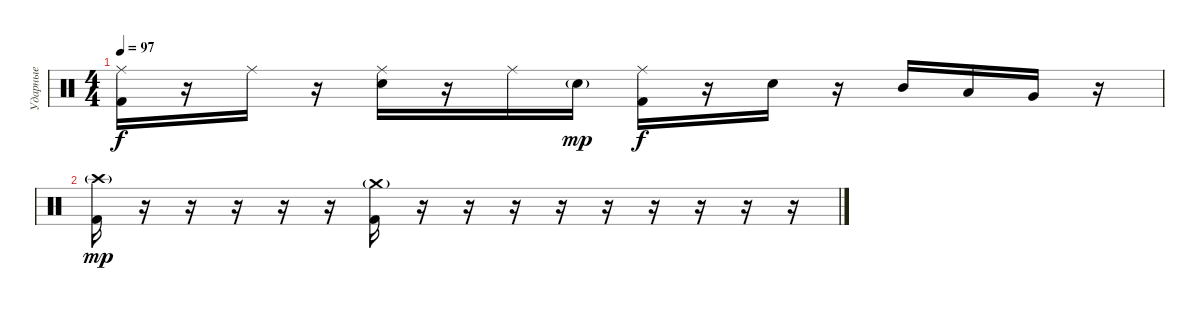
\track ("Ударные" "Ударные") {instrument percussion}
\staff {score}
\articulation defaults
\ts (4 4)
\tempo 97
\clef neutral
\ks c
("Ride (middle)" "Kick (hit) 2").16{dy f} r.16 "Ride (middle)".16 r.16 ("Ride (middle)" "Electric Snare (hit)").16 r.16 "Ride (middle)".16 "Electric Snare (hit)"{g}.16{dy mp} ("Ride (middle)" "Kick (hit) 2").16{dy f} r.16 "Electric Snare (hit)".16 r.16 "Mid Tom (hit)".16 "Low Tom (hit)".16 "Very Low Tom (hit)".16 r.16 |
("Crash high (hit)"{g} "Kick (hit) 2").16{dy mp} r.16 r.16 r.16 r.16 r.16 ("Crash medium (hit)"{g} "Kick (hit) 2").16 r.16 r.16 r.16 r.16 r.16 r.16 r.16 r.16 r.16
